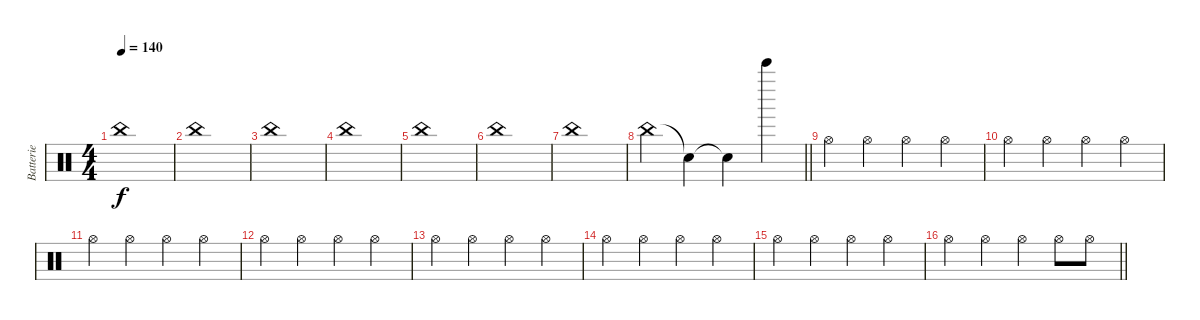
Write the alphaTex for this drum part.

\track ("Batterie" "Batterie") {instrument percussion}
\staff {score}
\articulation defaults
\ts (4 4)
\tempo 140
\clef neutral
\ks c "China (hit)".1{dy f volume 5}
|
"China (hit)".1 |
"China (hit)".1 |
"China (hit)".1 |
"China (hit)".1 |
"China (hit)".1 |
"China (hit)".1 |
\barLineRight lightlight "China (hit)".4 "Snare (hit)"{t}.4 "Snare (hit)"{t}.4 "Bell Tree (hit)".4
|
"Hi-Hat (open)".4{volume 13} "Hi-Hat (open)".4 "Hi-Hat (open)".4 "Hi-Hat (open)".4 |
"Hi-Hat (open)".4 "Hi-Hat (open)".4 "Hi-Hat (open)".4 "Hi-Hat (open)".4 |
"Hi-Hat (open)".4 "Hi-Hat (open)".4 "Hi-Hat (open)".4 "Hi-Hat (open)".4 |
"Hi-Hat (open)".4 "Hi-Hat (open)".4 "Hi-Hat (open)".4 "Hi-Hat (open)".4 |
"Hi-Hat (open)".4 "Hi-Hat (open)".4 "Hi-Hat (open)".4 "Hi-Hat (open)".4 |
"Hi-Hat (open)".4 "Hi-Hat (open)".4 "Hi-Hat (open)".4 "Hi-Hat (open)".4 |
"Hi-Hat (open)".4 "Hi-Hat (open)".4 "Hi-Hat (open)".4 "Hi-Hat (open)".4 |
\barLineRight lightlight "Hi-Hat (open)".4 "Hi-Hat (open)".4 "Hi-Hat (open)".4 "Hi-Hat (open)".8 "Hi-Hat (open)".8
